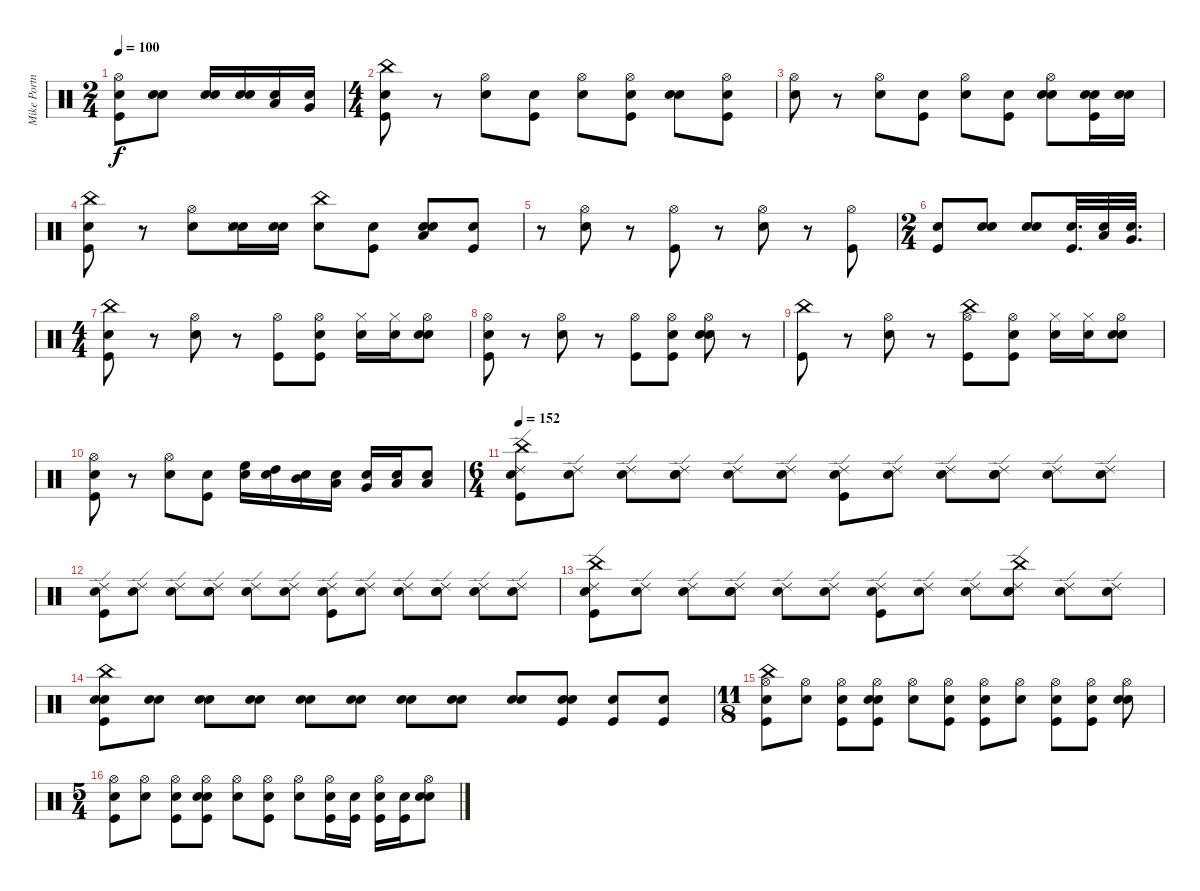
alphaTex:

\track ("Mike Portnoy" "Mike Portn") {instrument percussion}
\staff {score}
\articulation defaults
\ts (2 4)
\tempo 100
\clef neutral
\ks c
("Snare (hit)" "Kick (hit)" "Hi-Hat (open)").8{dy f} ("Snare (hit)" "Snare (hit) 2").8 ("Snare (hit)" "Snare (hit) 2").16 ("Snare (hit)" "Snare (hit) 2").16 ("Snare (hit)" "Low Tom (hit)").16 ("Snare (hit)" "Very Low Tom (hit)").16 |
\ts (4 4)
("Snare (hit)" "Kick (hit)" "China (hit)").8 r.8 ("Snare (hit) 2" "Hi-Hat (open)").8 ("Snare (hit)" "Kick (hit)").8 ("Snare (hit)" "Hi-Hat (open)").8 ("Snare (hit)" "Kick (hit)" "Hi-Hat (open)").8 ("Snare (hit)" "Snare (hit) 2").8 ("Snare (hit)" "Kick (hit)" "Hi-Hat (open)").8 |
("Snare (hit)" "Hi-Hat (open)").8 r.8 ("Snare (hit) 2" "Hi-Hat (open)").8 ("Snare (hit)" "Kick (hit)").8 ("Snare (hit)" "Hi-Hat (open)").8 ("Snare (hit)" "Kick (hit)").8 ("Snare (hit)" "Snare (hit) 2" "Hi-Hat (open)").8 ("Snare (hit)" "Kick (hit)" "Snare (hit) 2").16 ("Snare (hit)" "Snare (hit) 2").16 |
("Snare (hit)" "Kick (hit)" "China (hit)").8 r.8 ("Snare (hit) 2" "Hi-Hat (open)").8 ("Snare (hit)" "Metronome (hit)" "Snare (hit) 2").16 ("Snare (hit)" "Snare (hit) 2").16 ("Snare (hit)" "China (hit)").8 ("Snare (hit)" "Kick (hit)").8 ("Snare (hit)" "Snare (hit) 2" "Low Tom (hit)").8 ("Snare (hit)" "Kick (hit)").8 |
r.8 ("Snare (hit) 2" "Hi-Hat (open)").8 r.8 ("Kick (hit)" "Hi-Hat (open)").8 r.8 ("Snare (hit) 2" "Hi-Hat (open)").8 r.8 ("Kick (hit)" "Hi-Hat (open)").8 |
\ts (2 4)
("Snare (hit)" "Kick (hit)").8 ("Snare (hit)" "Snare (hit) 2").8 ("Snare (hit)" "Snare (hit) 2").8 ("Snare (hit)" "Kick (hit)").32{d} ("Snare (hit)" "Low Tom (hit)").32 ("Snare (hit)" "Very Low Tom (hit)").32{d} |
\ts (4 4)
("Snare (hit)" "Kick (hit)" "China (hit)").8 r.8 ("Snare (hit) 2" "Hi-Hat (open)").8 r.8 ("Kick (hit)" "Hi-Hat (open)").8 ("Snare (hit)" "Kick (hit)" "Hi-Hat (open)").8 ("Snare (hit)" "Hi-Hat (closed)").16 ("Snare (hit)" "Hi-Hat (closed)").16 ("Snare (hit)" "Snare (hit) 2" "Hi-Hat (open)").8 |
("Snare (hit)" "Kick (hit)" "Hi-Hat (open)").8 r.8 ("Snare (hit) 2" "Hi-Hat (open)").8 r.8 ("Kick (hit)" "Hi-Hat (open)").8 ("Snare (hit)" "Kick (hit)" "Hi-Hat (open)").8 ("Snare (hit)" "Snare (hit) 2" "Hi-Hat (open)").8 r.8 |
("Kick (hit)" "China (hit)").8 r.8 ("Snare (hit) 2" "Hi-Hat (open)").8 r.8 ("Kick (hit)" "Hi-Hat (open)" "China (hit)").8 ("Snare (hit)" "Kick (hit)" "Hi-Hat (open)").8 ("Snare (hit)" "Hi-Hat (closed)").16 ("Snare (hit)" "Hi-Hat (closed)").16 ("Snare (hit)" "Snare (hit) 2" "Hi-Hat (open)").8 |
("Snare (hit)" "Kick (hit)" "Hi-Hat (open)").8 r.8 ("Snare (hit) 2" "Hi-Hat (open)").8 ("Snare (hit)" "Kick (hit)").8 ("Snare (hit)" "High Floor Tom (hit)").16 ("Snare (hit)" "High Tom (hit)").16 ("Snare (hit)" "Mid Tom (hit)").16 ("Snare (hit)" "Low Tom (hit)").16 ("Snare (hit)" "Very Low Tom (hit)").16 ("Snare (hit)" "Low Tom (hit)").16 ("Snare (hit)" "Low Floor Tom (hit)").8 |
\ts (6 4)
\tempo 152
("Snare (hit)" "Kick (hit)" "China (hit)" "Ride (edge) 2").8 ("Snare (hit)" "Ride (edge) 2").8 ("Snare (hit)" "Ride (edge) 2").8 ("Snare (hit)" "Snare (hit) 2" "Ride (edge) 2").8 ("Snare (hit)" "Ride (edge) 2").8 ("Snare (hit)" "Ride (edge) 2").8 ("Snare (hit)" "Kick (hit)" "Ride (edge) 2").8 ("Snare (hit)" "Ride (edge) 2").8 ("Snare (hit)" "Ride (edge) 2").8 ("Snare (hit)" "Snare (hit) 2" "Ride (edge) 2").8 ("Snare (hit)" "Ride (edge) 2").8 ("Snare (hit)" "Ride (edge) 2").8 |
("Snare (hit)" "Kick (hit)" "Ride (edge) 2").8 ("Snare (hit)" "Ride (edge) 2").8 ("Snare (hit)" "Ride (edge) 2").8 ("Snare (hit)" "Snare (hit) 2" "Ride (edge) 2").8 ("Snare (hit)" "Ride (edge) 2").8 ("Snare (hit)" "Ride (edge) 2").8 ("Snare (hit)" "Kick (hit)" "Ride (edge) 2").8 ("Snare (hit)" "Ride (edge) 2").8 ("Snare (hit)" "Ride (edge) 2").8 ("Snare (hit)" "Snare (hit) 2" "Ride (edge) 2").8 ("Snare (hit)" "Ride (edge) 2").8 ("Snare (hit)" "Ride (edge) 2").8 |
("Snare (hit)" "Kick (hit)" "China (hit)" "Ride (edge) 2").8 ("Snare (hit)" "Ride (edge) 2").8 ("Snare (hit)" "Ride (edge) 2").8 ("Snare (hit)" "Snare (hit) 2" "Ride (edge) 2").8 ("Snare (hit)" "Ride (edge) 2").8 ("Snare (hit)" "Ride (edge) 2").8 ("Snare (hit)" "Kick (hit)" "Ride (edge) 2").8 ("Snare (hit)" "Ride (edge) 2").8 ("Snare (hit)" "Ride (edge) 2").8 ("Snare (hit)" "Snare (hit) 2" "China (hit)" "Ride (edge) 2").8 ("Snare (hit)" "Ride (edge) 2").8 ("Snare (hit)" "Ride (edge) 2").8 |
("Snare (hit)" "Kick (hit)" "Snare (hit) 2" "China (hit)").8 ("Snare (hit)" "Snare (hit) 2").8 ("Snare (hit)" "Snare (hit) 2").8 ("Snare (hit)" "Snare (hit) 2").8 ("Snare (hit)" "Snare (hit) 2").8 ("Snare (hit)" "Snare (hit) 2").8 ("Snare (hit)" "Snare (hit) 2").8 ("Snare (hit)" "Snare (hit) 2").8 ("Snare (hit)" "Snare (hit) 2").8 ("Snare (hit)" "Kick (hit)" "Snare (hit) 2").8 ("Snare (hit)" "Kick (hit)").8 ("Snare (hit)" "Kick (hit)").8 |
\ts (11 8)
("Snare (hit)" "Kick (hit)" "Hi-Hat (open)" "China (hit)").8 ("Snare (hit)" "Hi-Hat (open)").8 ("Snare (hit)" "Kick (hit)" "Hi-Hat (open)").8 ("Snare (hit)" "Kick (hit)" "Snare (hit) 2" "Hi-Hat (open)").8 ("Snare (hit)" "Hi-Hat (open)").8 ("Snare (hit)" "Kick (hit)" "Hi-Hat (open)").8 ("Snare (hit)" "Kick (hit)" "Hi-Hat (open)").8 ("Snare (hit)" "Hi-Hat (open)").8 ("Snare (hit)" "Kick (hit)" "Hi-Hat (open)").8 ("Snare (hit)" "Kick (hit)" "Hi-Hat (open)").8 ("Snare (hit)" "Snare (hit) 2" "Hi-Hat (open)").8 |
\ts (5 4)
("Snare (hit)" "Kick (hit)" "Hi-Hat (open)").8 ("Snare (hit)" "Hi-Hat (open)").8 ("Snare (hit)" "Kick (hit)" "Hi-Hat (open)").8 ("Snare (hit)" "Kick (hit)" "Snare (hit) 2" "Hi-Hat (open)").8 ("Snare (hit)" "Hi-Hat (open)").8 ("Snare (hit)" "Kick (hit)" "Hi-Hat (open)").8 ("Snare (hit)" "Hi-Hat (open)").8 ("Snare (hit)" "Kick (hit)" "Hi-Hat (open)").16 ("Snare (hit)" "Kick (hit)").16 ("Snare (hit)" "Kick (hit)" "Hi-Hat (open)").16 ("Snare (hit)" "Kick (hit)").16 ("Snare (hit)" "Snare (hit) 2" "Hi-Hat (open)").8
